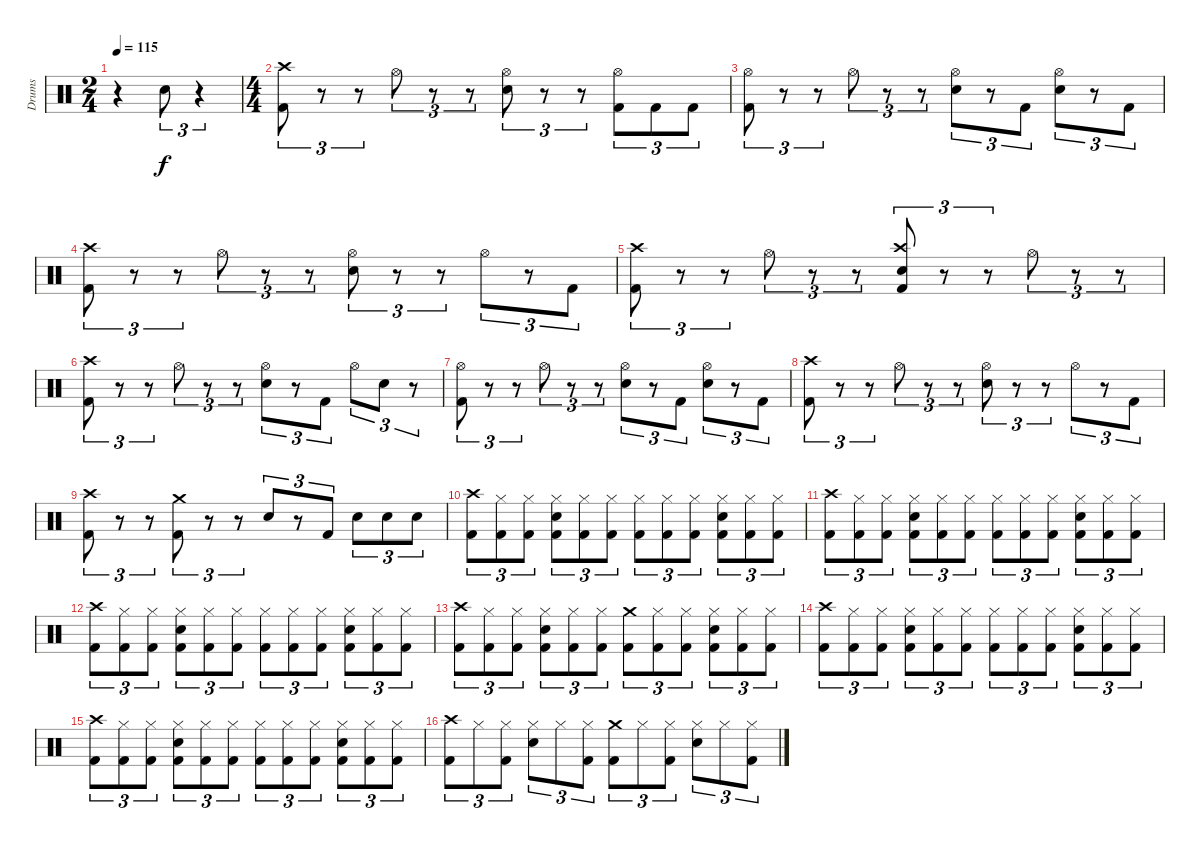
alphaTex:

\track ("Drums" "Drums") {instrument percussion}
\staff {score}
\articulation defaults
\ts (2 4)
\tempo 115
\clef neutral
\ks c
r.4{dy f} "Snare (hit) 2".8{tu (3 2)} r.4{tu (3 2)} |
\ts (4 4)
("Crash high (hit)" "Kick (hit) 2").8{tu (3 2)} r.8{tu (3 2)} r.8{tu (3 2)} "Hi-Hat (open)".8{tu (3 2)} r.8{tu (3 2)} r.8{tu (3 2)} ("Hi-Hat (open)" "Snare (hit) 2").8{tu (3 2)} r.8{tu (3 2)} r.8{tu (3 2)} ("Hi-Hat (open)" "Kick (hit) 2").8{tu (3 2)} "Kick (hit) 2".8{tu (3 2)} "Kick (hit) 2".8{tu (3 2)} |
("Hi-Hat (open)" "Kick (hit) 2").8{tu (3 2)} r.8{tu (3 2)} r.8{tu (3 2)} "Hi-Hat (open)".8{tu (3 2)} r.8{tu (3 2)} r.8{tu (3 2)} ("Hi-Hat (open)" "Snare (hit) 2").8{tu (3 2)} r.8{tu (3 2)} "Kick (hit) 2".8{tu (3 2)} ("Hi-Hat (open)" "Snare (hit) 2").8{tu (3 2)} r.8{tu (3 2)} "Kick (hit) 2".8{tu (3 2)} |
("Crash high (hit)" "Kick (hit) 2").8{tu (3 2)} r.8{tu (3 2)} r.8{tu (3 2)} "Hi-Hat (open)".8{tu (3 2)} r.8{tu (3 2)} r.8{tu (3 2)} ("Hi-Hat (open)" "Snare (hit) 2").8{tu (3 2)} r.8{tu (3 2)} r.8{tu (3 2)} "Hi-Hat (open)".8{tu (3 2)} r.8{tu (3 2)} "Kick (hit) 2".8{tu (3 2)} |
("Crash high (hit)" "Kick (hit) 2").8{tu (3 2)} r.8{tu (3 2)} r.8{tu (3 2)} "Hi-Hat (open)".8{tu (3 2)} r.8{tu (3 2)} r.8{tu (3 2)} ("Crash high (hit)" "Snare (hit) 2" "Kick (hit) 2").8{tu (3 2)} r.8{tu (3 2)} r.8{tu (3 2)} "Hi-Hat (open)".8{tu (3 2)} r.8{tu (3 2)} r.8{tu (3 2)} |
("Crash high (hit)" "Kick (hit) 2").8{tu (3 2)} r.8{tu (3 2)} r.8{tu (3 2)} "Hi-Hat (open)".8{tu (3 2)} r.8{tu (3 2)} r.8{tu (3 2)} ("Hi-Hat (open)" "Snare (hit) 2").8{tu (3 2)} r.8{tu (3 2)} "Kick (hit) 2".8{tu (3 2)} "Hi-Hat (open)".8{tu (3 2)} "Snare (hit) 2".8{tu (3 2)} r.8{tu (3 2)} |
("Hi-Hat (open)" "Kick (hit) 2").8{tu (3 2)} r.8{tu (3 2)} r.8{tu (3 2)} "Hi-Hat (open)".8{tu (3 2)} r.8{tu (3 2)} r.8{tu (3 2)} ("Hi-Hat (open)" "Snare (hit) 2").8{tu (3 2)} r.8{tu (3 2)} "Kick (hit) 2".8{tu (3 2)} ("Hi-Hat (open)" "Snare (hit) 2").8{tu (3 2)} r.8{tu (3 2)} "Kick (hit) 2".8{tu (3 2)} |
("Crash high (hit)" "Kick (hit) 2").8{tu (3 2)} r.8{tu (3 2)} r.8{tu (3 2)} "Hi-Hat (open)".8{tu (3 2)} r.8{tu (3 2)} r.8{tu (3 2)} ("Hi-Hat (open)" "Snare (hit) 2").8{tu (3 2)} r.8{tu (3 2)} r.8{tu (3 2)} "Hi-Hat (open)".8{tu (3 2)} r.8{tu (3 2)} "Kick (hit) 2".8{tu (3 2)} |
("Crash high (hit)" "Kick (hit) 2").8{tu (3 2)} r.8{tu (3 2)} r.8{tu (3 2)} ("Crash medium (hit)" "Kick (hit) 2").8{tu (3 2)} r.8{tu (3 2)} r.8{tu (3 2)} "Snare (hit) 2".8{tu (3 2)} r.8{tu (3 2)} "Kick (hit) 2".8{tu (3 2)} "Snare (hit) 2".8{tu (3 2)} "Snare (hit) 2".8{tu (3 2)} "Snare (hit) 2".8{tu (3 2)} |
("Crash high (hit)" "Kick (hit) 2").8{tu (3 2)} ("Hi-Hat (closed)" "Kick (hit) 2").8{tu (3 2)} ("Hi-Hat (closed)" "Kick (hit) 2").8{tu (3 2)} ("Hi-Hat (closed)" "Snare (hit) 2" "Kick (hit) 2").8{tu (3 2)} ("Hi-Hat (closed)" "Kick (hit) 2").8{tu (3 2)} ("Hi-Hat (closed)" "Kick (hit) 2").8{tu (3 2)} ("Hi-Hat (closed)" "Kick (hit) 2").8{tu (3 2)} ("Hi-Hat (closed)" "Kick (hit) 2").8{tu (3 2)} ("Hi-Hat (closed)" "Kick (hit) 2").8{tu (3 2)} ("Hi-Hat (closed)" "Snare (hit) 2" "Kick (hit) 2").8{tu (3 2)} ("Hi-Hat (closed)" "Kick (hit) 2").8{tu (3 2)} ("Hi-Hat (closed)" "Kick (hit) 2").8{tu (3 2)} |
("Crash high (hit)" "Kick (hit) 2").8{tu (3 2)} ("Hi-Hat (closed)" "Kick (hit) 2").8{tu (3 2)} ("Hi-Hat (closed)" "Kick (hit) 2").8{tu (3 2)} ("Hi-Hat (closed)" "Snare (hit) 2" "Kick (hit) 2").8{tu (3 2)} ("Hi-Hat (closed)" "Kick (hit) 2").8{tu (3 2)} ("Hi-Hat (closed)" "Kick (hit) 2").8{tu (3 2)} ("Hi-Hat (closed)" "Kick (hit) 2").8{tu (3 2)} ("Hi-Hat (closed)" "Kick (hit) 2").8{tu (3 2)} ("Hi-Hat (closed)" "Kick (hit) 2").8{tu (3 2)} ("Hi-Hat (closed)" "Snare (hit) 2" "Kick (hit) 2").8{tu (3 2)} ("Hi-Hat (closed)" "Kick (hit) 2").8{tu (3 2)} ("Hi-Hat (closed)" "Kick (hit) 2").8{tu (3 2)} |
("Crash high (hit)" "Kick (hit) 2").8{tu (3 2)} ("Hi-Hat (closed)" "Kick (hit) 2").8{tu (3 2)} ("Hi-Hat (closed)" "Kick (hit) 2").8{tu (3 2)} ("Hi-Hat (closed)" "Snare (hit) 2" "Kick (hit) 2").8{tu (3 2)} ("Hi-Hat (closed)" "Kick (hit) 2").8{tu (3 2)} ("Hi-Hat (closed)" "Kick (hit) 2").8{tu (3 2)} ("Hi-Hat (closed)" "Kick (hit) 2").8{tu (3 2)} ("Hi-Hat (closed)" "Kick (hit) 2").8{tu (3 2)} ("Hi-Hat (closed)" "Kick (hit) 2").8{tu (3 2)} ("Hi-Hat (closed)" "Snare (hit) 2" "Kick (hit) 2").8{tu (3 2)} ("Hi-Hat (closed)" "Kick (hit) 2").8{tu (3 2)} ("Hi-Hat (closed)" "Kick (hit) 2").8{tu (3 2)} |
("Crash high (hit)" "Kick (hit) 2").8{tu (3 2)} ("Hi-Hat (closed)" "Kick (hit) 2").8{tu (3 2)} ("Hi-Hat (closed)" "Kick (hit) 2").8{tu (3 2)} ("Hi-Hat (closed)" "Snare (hit) 2" "Kick (hit) 2").8{tu (3 2)} ("Hi-Hat (closed)" "Kick (hit) 2").8{tu (3 2)} ("Hi-Hat (closed)" "Kick (hit) 2").8{tu (3 2)} ("Crash medium (hit)" "Kick (hit) 2").8{tu (3 2)} ("Hi-Hat (closed)" "Kick (hit) 2").8{tu (3 2)} ("Hi-Hat (closed)" "Kick (hit) 2").8{tu (3 2)} ("Hi-Hat (closed)" "Snare (hit) 2" "Kick (hit) 2").8{tu (3 2)} ("Hi-Hat (closed)" "Kick (hit) 2").8{tu (3 2)} ("Hi-Hat (closed)" "Kick (hit) 2").8{tu (3 2)} |
("Crash high (hit)" "Kick (hit) 2").8{tu (3 2)} ("Hi-Hat (closed)" "Kick (hit) 2").8{tu (3 2)} ("Hi-Hat (closed)" "Kick (hit) 2").8{tu (3 2)} ("Hi-Hat (closed)" "Snare (hit) 2" "Kick (hit) 2").8{tu (3 2)} ("Hi-Hat (closed)" "Kick (hit) 2").8{tu (3 2)} ("Hi-Hat (closed)" "Kick (hit) 2").8{tu (3 2)} ("Hi-Hat (closed)" "Kick (hit) 2").8{tu (3 2)} ("Hi-Hat (closed)" "Kick (hit) 2").8{tu (3 2)} ("Hi-Hat (closed)" "Kick (hit) 2").8{tu (3 2)} ("Hi-Hat (closed)" "Snare (hit) 2" "Kick (hit) 2").8{tu (3 2)} ("Hi-Hat (closed)" "Kick (hit) 2").8{tu (3 2)} ("Hi-Hat (closed)" "Kick (hit) 2").8{tu (3 2)} |
("Crash high (hit)" "Kick (hit) 2").8{tu (3 2)} ("Hi-Hat (closed)" "Kick (hit) 2").8{tu (3 2)} ("Hi-Hat (closed)" "Kick (hit) 2").8{tu (3 2)} ("Hi-Hat (closed)" "Snare (hit) 2" "Kick (hit) 2").8{tu (3 2)} ("Hi-Hat (closed)" "Kick (hit) 2").8{tu (3 2)} ("Hi-Hat (closed)" "Kick (hit) 2").8{tu (3 2)} ("Hi-Hat (closed)" "Kick (hit) 2").8{tu (3 2)} ("Hi-Hat (closed)" "Kick (hit) 2").8{tu (3 2)} ("Hi-Hat (closed)" "Kick (hit) 2").8{tu (3 2)} ("Hi-Hat (closed)" "Snare (hit) 2" "Kick (hit) 2").8{tu (3 2)} ("Hi-Hat (closed)" "Kick (hit) 2").8{tu (3 2)} ("Hi-Hat (closed)" "Kick (hit) 2").8{tu (3 2)} |
("Crash high (hit)" "Kick (hit) 2").8{tu (3 2)} "Hi-Hat (closed)".8{tu (3 2)} ("Hi-Hat (closed)" "Kick (hit) 2").8{tu (3 2)} ("Hi-Hat (closed)" "Snare (hit) 2").8{tu (3 2)} "Hi-Hat (closed)".8{tu (3 2)} ("Hi-Hat (closed)" "Kick (hit) 2").8{tu (3 2)} ("Crash medium (hit)" "Kick (hit) 2").8{tu (3 2)} "Hi-Hat (closed)".8{tu (3 2)} ("Hi-Hat (closed)" "Kick (hit) 2").8{tu (3 2)} ("Hi-Hat (closed)" "Snare (hit) 2").8{tu (3 2)} "Hi-Hat (closed)".8{tu (3 2)} ("Hi-Hat (closed)" "Kick (hit) 2").8{tu (3 2)}
